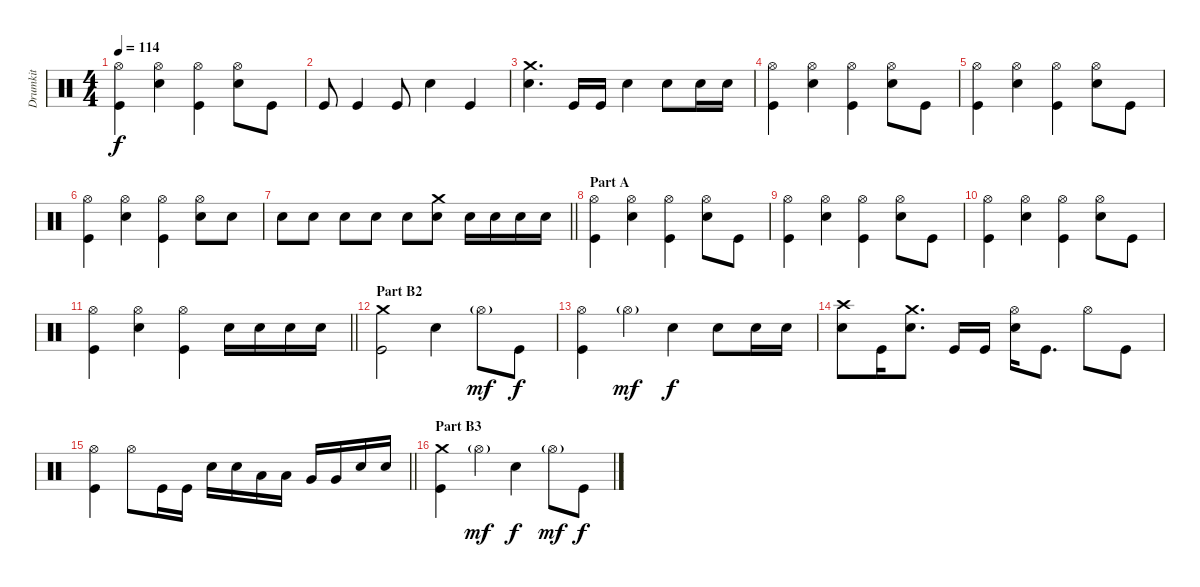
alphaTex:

\track ("Drumkit" "Drumkit") {instrument percussion}
\staff {score}
\articulation defaults
\ts (4 4)
\tempo 114
\clef neutral
\ks c
("Hi-Hat (open)" "Kick (hit)").4{dy f} ("Hi-Hat (open)" "Snare (hit) 2").4 ("Hi-Hat (open)" "Kick (hit)").4 ("Hi-Hat (open)" "Snare (hit) 2").8 "Kick (hit)".8 |
"Kick (hit)".8 "Kick (hit)".4 "Kick (hit)".8 "Snare (hit) 2".4 "Kick (hit)".4 |
("Crash medium (hit)" "Snare (hit) 2").4{d} "Kick (hit)".16 "Kick (hit)".16 "Snare (hit) 2".4 "Snare (hit) 2".8 "Snare (hit) 2".16 "Snare (hit) 2".16 |
("Hi-Hat (open)" "Kick (hit)").4 ("Hi-Hat (open)" "Snare (hit) 2").4 ("Hi-Hat (open)" "Kick (hit)").4 ("Hi-Hat (open)" "Snare (hit) 2").8 "Kick (hit)".8 |
("Hi-Hat (open)" "Kick (hit)").4 ("Hi-Hat (open)" "Snare (hit) 2").4 ("Hi-Hat (open)" "Kick (hit)").4 ("Hi-Hat (open)" "Snare (hit) 2").8 "Kick (hit)".8 |
("Hi-Hat (open)" "Kick (hit)").4 ("Hi-Hat (open)" "Snare (hit) 2").4 ("Hi-Hat (open)" "Kick (hit)").4 ("Hi-Hat (open)" "Snare (hit) 2").8 "Snare (hit) 2".8 |
\barLineRight lightlight "Snare (hit) 2".8 "Snare (hit) 2".8 "Snare (hit) 2".8 "Snare (hit) 2".8 "Snare (hit) 2".8
("Crash medium (hit)" "Snare (hit) 2").8 "Snare (hit) 2".16 "Snare (hit) 2".16 "Snare (hit) 2".16 "Snare (hit) 2".16 |
\section ("" "Part A")
("Hi-Hat (open)" "Kick (hit)").4 ("Hi-Hat (open)" "Snare (hit) 2").4 ("Hi-Hat (open)" "Kick (hit)").4 ("Hi-Hat (open)" "Snare (hit) 2").8 "Kick (hit)".8 |
("Hi-Hat (open)" "Kick (hit)").4 ("Hi-Hat (open)" "Snare (hit) 2").4 ("Hi-Hat (open)" "Kick (hit)").4 ("Hi-Hat (open)" "Snare (hit) 2").8 "Kick (hit)".8 |
("Hi-Hat (open)" "Kick (hit)").4 ("Hi-Hat (open)" "Snare (hit) 2").4 ("Hi-Hat (open)" "Kick (hit)").4 ("Hi-Hat (open)" "Snare (hit) 2").8 "Kick (hit)".8 |
\barLineRight lightlight
("Hi-Hat (open)" "Kick (hit)").4 ("Hi-Hat (open)" "Snare (hit) 2").4 ("Hi-Hat (open)" "Kick (hit)").4 "Snare (hit) 2".16 "Snare (hit) 2".16 "Snare (hit) 2".16 "Snare (hit) 2".16 |
\section ("" "Part B2")
("Crash medium (hit)" "Kick (hit)").2 "Snare (hit) 2".4 "Hi-Hat (open)"{g}.8{dy mf} "Kick (hit)".8{dy f} |
("Hi-Hat (open)" "Kick (hit)").4 "Hi-Hat (open)"{g}.4{dy mf} "Snare (hit) 2".4{dy f} "Snare (hit) 2".8 "Snare (hit) 2".16 "Snare (hit) 2".16 |
("Crash high (hit)" "Snare (hit) 2").8 "Kick (hit)".16 ("Crash medium (hit)" "Snare (hit) 2").8{d} "Kick (hit)".16 "Kick (hit)".16 ("Hi-Hat (open)" "Snare (hit) 2").16 "Kick (hit)".8{d} "Hi-Hat (open)".8 "Kick (hit)".8 |
\barLineRight lightlight
("Hi-Hat (open)" "Kick (hit)").4 "Hi-Hat (open)".8 "Kick (hit)".16 "Kick (hit)".16 "Snare (hit) 2".16 "Snare (hit) 2".16 "Low Tom (hit)".16 "Low Tom (hit)".16 "Very Low Tom (hit)".16 "Very Low Tom (hit)".16 "Snare (hit) 2".16 "Snare (hit) 2".16 |
\section ("" "Part B3")
("Crash medium (hit)" "Kick (hit)").4 "Hi-Hat (open)"{g}.4{dy mf} "Snare (hit) 2".4{dy f} "Hi-Hat (open)"{g}.8{dy mf} "Kick (hit)".8{dy f}
